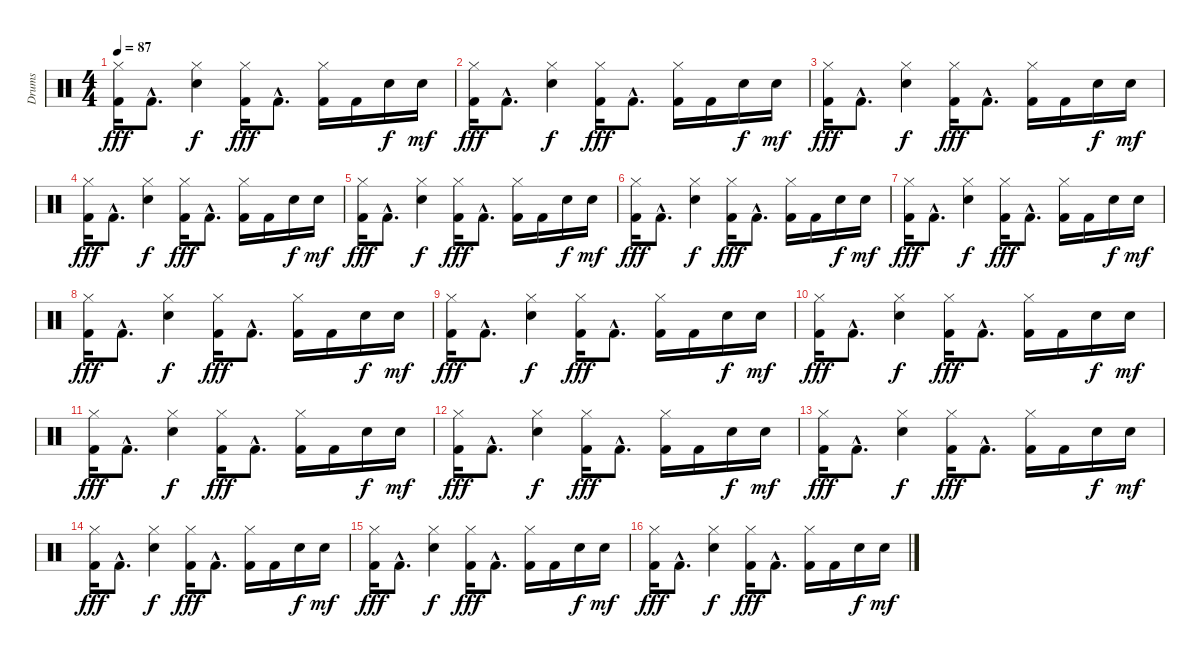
\track ("Drums" "Drums") {instrument percussion}
\staff {score}
\articulation defaults
\ts (4 4)
\tempo 87
\clef neutral
\ks c
("Hi-Hat (closed)" "Kick (hit) 2").16{dy fff} "Kick (hit) 2"{hac}.8{d} ("Hi-Hat (closed)" "Snare (hit) 2").4{dy f} ("Hi-Hat (closed)" "Kick (hit) 2").16{dy fff} "Kick (hit) 2"{hac}.8{d} ("Hi-Hat (closed)" "Kick (hit) 2").16 "Kick (hit) 2".16 "Snare (hit) 2".16{dy f} "Snare (hit) 2".16{dy mf} |
("Hi-Hat (closed)" "Kick (hit) 2").16{dy fff} "Kick (hit) 2"{hac}.8{d} ("Hi-Hat (closed)" "Snare (hit) 2").4{dy f} ("Hi-Hat (closed)" "Kick (hit) 2").16{dy fff} "Kick (hit) 2"{hac}.8{d} ("Hi-Hat (closed)" "Kick (hit) 2").16 "Kick (hit) 2".16 "Snare (hit) 2".16{dy f} "Snare (hit) 2".16{dy mf} |
("Hi-Hat (closed)" "Kick (hit) 2").16{dy fff} "Kick (hit) 2"{hac}.8{d} ("Hi-Hat (closed)" "Snare (hit) 2").4{dy f} ("Hi-Hat (closed)" "Kick (hit) 2").16{dy fff} "Kick (hit) 2"{hac}.8{d} ("Hi-Hat (closed)" "Kick (hit) 2").16 "Kick (hit) 2".16 "Snare (hit) 2".16{dy f} "Snare (hit) 2".16{dy mf} |
("Hi-Hat (closed)" "Kick (hit) 2").16{dy fff} "Kick (hit) 2"{hac}.8{d} ("Hi-Hat (closed)" "Snare (hit) 2").4{dy f} ("Hi-Hat (closed)" "Kick (hit) 2").16{dy fff} "Kick (hit) 2"{hac}.8{d} ("Hi-Hat (closed)" "Kick (hit) 2").16 "Kick (hit) 2".16 "Snare (hit) 2".16{dy f} "Snare (hit) 2".16{dy mf} |
("Hi-Hat (closed)" "Kick (hit) 2").16{dy fff} "Kick (hit) 2"{hac}.8{d} ("Hi-Hat (closed)" "Snare (hit) 2").4{dy f} ("Hi-Hat (closed)" "Kick (hit) 2").16{dy fff} "Kick (hit) 2"{hac}.8{d} ("Hi-Hat (closed)" "Kick (hit) 2").16 "Kick (hit) 2".16 "Snare (hit) 2".16{dy f} "Snare (hit) 2".16{dy mf} |
("Hi-Hat (closed)" "Kick (hit) 2").16{dy fff} "Kick (hit) 2"{hac}.8{d} ("Hi-Hat (closed)" "Snare (hit) 2").4{dy f} ("Hi-Hat (closed)" "Kick (hit) 2").16{dy fff} "Kick (hit) 2"{hac}.8{d} ("Hi-Hat (closed)" "Kick (hit) 2").16 "Kick (hit) 2".16 "Snare (hit) 2".16{dy f} "Snare (hit) 2".16{dy mf} |
("Hi-Hat (closed)" "Kick (hit) 2").16{dy fff} "Kick (hit) 2"{hac}.8{d} ("Hi-Hat (closed)" "Snare (hit) 2").4{dy f} ("Hi-Hat (closed)" "Kick (hit) 2").16{dy fff} "Kick (hit) 2"{hac}.8{d} ("Hi-Hat (closed)" "Kick (hit) 2").16 "Kick (hit) 2".16 "Snare (hit) 2".16{dy f} "Snare (hit) 2".16{dy mf} |
("Hi-Hat (closed)" "Kick (hit) 2").16{dy fff} "Kick (hit) 2"{hac}.8{d} ("Hi-Hat (closed)" "Snare (hit) 2").4{dy f} ("Hi-Hat (closed)" "Kick (hit) 2").16{dy fff} "Kick (hit) 2"{hac}.8{d} ("Hi-Hat (closed)" "Kick (hit) 2").16 "Kick (hit) 2".16 "Snare (hit) 2".16{dy f} "Snare (hit) 2".16{dy mf} |
("Hi-Hat (closed)" "Kick (hit) 2").16{dy fff} "Kick (hit) 2"{hac}.8{d} ("Hi-Hat (closed)" "Snare (hit) 2").4{dy f} ("Hi-Hat (closed)" "Kick (hit) 2").16{dy fff} "Kick (hit) 2"{hac}.8{d} ("Hi-Hat (closed)" "Kick (hit) 2").16 "Kick (hit) 2".16 "Snare (hit) 2".16{dy f} "Snare (hit) 2".16{dy mf} |
("Hi-Hat (closed)" "Kick (hit) 2").16{dy fff} "Kick (hit) 2"{hac}.8{d} ("Hi-Hat (closed)" "Snare (hit) 2").4{dy f} ("Hi-Hat (closed)" "Kick (hit) 2").16{dy fff} "Kick (hit) 2"{hac}.8{d} ("Hi-Hat (closed)" "Kick (hit) 2").16 "Kick (hit) 2".16 "Snare (hit) 2".16{dy f} "Snare (hit) 2".16{dy mf} |
("Hi-Hat (closed)" "Kick (hit) 2").16{dy fff} "Kick (hit) 2"{hac}.8{d} ("Hi-Hat (closed)" "Snare (hit) 2").4{dy f} ("Hi-Hat (closed)" "Kick (hit) 2").16{dy fff} "Kick (hit) 2"{hac}.8{d} ("Hi-Hat (closed)" "Kick (hit) 2").16 "Kick (hit) 2".16 "Snare (hit) 2".16{dy f} "Snare (hit) 2".16{dy mf} |
("Hi-Hat (closed)" "Kick (hit) 2").16{dy fff} "Kick (hit) 2"{hac}.8{d} ("Hi-Hat (closed)" "Snare (hit) 2").4{dy f} ("Hi-Hat (closed)" "Kick (hit) 2").16{dy fff} "Kick (hit) 2"{hac}.8{d} ("Hi-Hat (closed)" "Kick (hit) 2").16 "Kick (hit) 2".16 "Snare (hit) 2".16{dy f} "Snare (hit) 2".16{dy mf} |
("Hi-Hat (closed)" "Kick (hit) 2").16{dy fff} "Kick (hit) 2"{hac}.8{d} ("Hi-Hat (closed)" "Snare (hit) 2").4{dy f} ("Hi-Hat (closed)" "Kick (hit) 2").16{dy fff} "Kick (hit) 2"{hac}.8{d} ("Hi-Hat (closed)" "Kick (hit) 2").16 "Kick (hit) 2".16 "Snare (hit) 2".16{dy f} "Snare (hit) 2".16{dy mf} |
("Hi-Hat (closed)" "Kick (hit) 2").16{dy fff} "Kick (hit) 2"{hac}.8{d} ("Hi-Hat (closed)" "Snare (hit) 2").4{dy f} ("Hi-Hat (closed)" "Kick (hit) 2").16{dy fff} "Kick (hit) 2"{hac}.8{d} ("Hi-Hat (closed)" "Kick (hit) 2").16 "Kick (hit) 2".16 "Snare (hit) 2".16{dy f} "Snare (hit) 2".16{dy mf} |
("Hi-Hat (closed)" "Kick (hit) 2").16{dy fff} "Kick (hit) 2"{hac}.8{d} ("Hi-Hat (closed)" "Snare (hit) 2").4{dy f} ("Hi-Hat (closed)" "Kick (hit) 2").16{dy fff} "Kick (hit) 2"{hac}.8{d} ("Hi-Hat (closed)" "Kick (hit) 2").16 "Kick (hit) 2".16 "Snare (hit) 2".16{dy f} "Snare (hit) 2".16{dy mf} |
("Hi-Hat (closed)" "Kick (hit) 2").16{dy fff} "Kick (hit) 2"{hac}.8{d} ("Hi-Hat (closed)" "Snare (hit) 2").4{dy f} ("Hi-Hat (closed)" "Kick (hit) 2").16{dy fff} "Kick (hit) 2"{hac}.8{d} ("Hi-Hat (closed)" "Kick (hit) 2").16 "Kick (hit) 2".16 "Snare (hit) 2".16{dy f} "Snare (hit) 2".16{dy mf}
